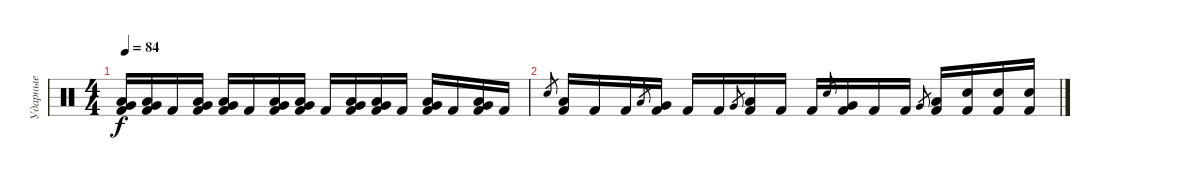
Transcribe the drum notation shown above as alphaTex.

\track ("Ударные" "Ударные") {instrument percussion}
\staff {score}
\articulation defaults
\ts (4 4)
\tempo 84
\clef neutral
\ks c
("Very Low Tom (hit)" "Low Floor Tom (hit)" "Kick (hit) 2").16{dy f} ("Very Low Tom (hit)" "Low Floor Tom (hit)" "Kick (hit) 2").16 "Kick (hit) 2".16 ("Very Low Tom (hit)" "Low Floor Tom (hit)" "Kick (hit) 2").16 ("Very Low Tom (hit)" "Low Floor Tom (hit)" "Kick (hit) 2").16 "Kick (hit) 2".16 ("Very Low Tom (hit)" "Low Floor Tom (hit)" "Kick (hit) 2").16 ("Very Low Tom (hit)" "Low Floor Tom (hit)" "Kick (hit) 2").16 "Kick (hit) 2".16 ("Very Low Tom (hit)" "Low Floor Tom (hit)" "Kick (hit) 2").16 ("Very Low Tom (hit)" "Low Floor Tom (hit)" "Kick (hit) 2").16 "Kick (hit) 2".16 ("Very Low Tom (hit)" "Low Floor Tom (hit)" "Kick (hit) 2").16 "Kick (hit) 2".16 ("Very Low Tom (hit)" "Low Floor Tom (hit)" "Kick (hit) 2").16 "Kick (hit) 2".16 |
"Snare (hit) 2".8{gr} ("Low Tom (hit)" "Kick (hit) 2").16 "Kick (hit) 2".16 "Kick (hit) 2".16 "Low Tom (hit)".8{gr} ("Very Low Tom (hit)" "Kick (hit) 2").16 "Kick (hit) 2".16 "Kick (hit) 2".16 "Very Low Tom (hit)".8{gr} ("Low Floor Tom (hit)" "Kick (hit) 2").16 "Kick (hit) 2".16 "Kick (hit) 2".16 "Snare (hit) 2".8{gr} ("Very Low Tom (hit)" "Kick (hit) 2").16 "Kick (hit) 2".16 "Kick (hit) 2".16 "Very Low Tom (hit)".8{gr} ("Low Floor Tom (hit)" "Kick (hit) 2").16 ("Snare (hit) 2" "Kick (hit) 2").16 ("Snare (hit) 2" "Kick (hit) 2").16 ("Snare (hit) 2" "Kick (hit) 2").16
